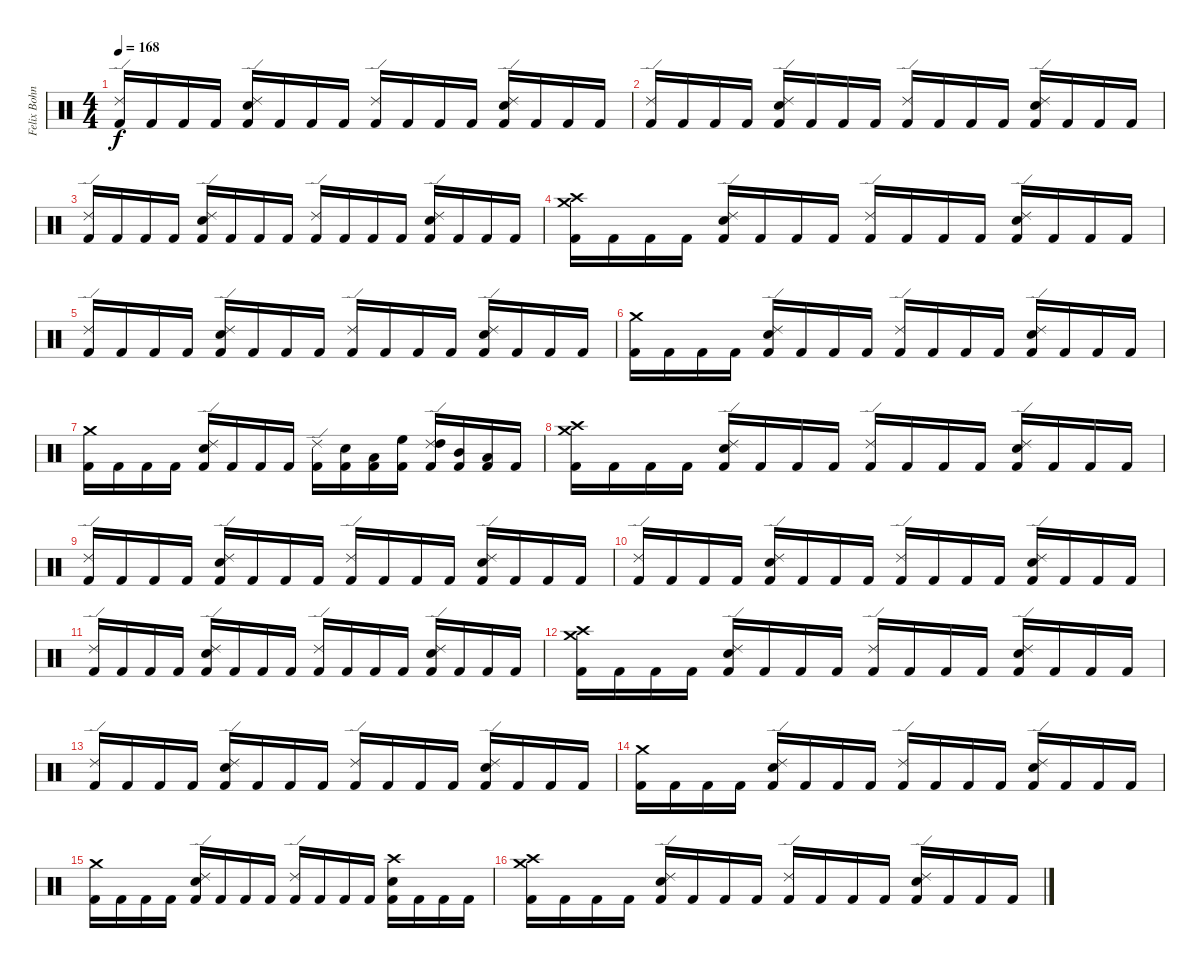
\track ("Felix Bohnke" "Felix Bohn") {instrument percussion}
\staff {score}
\articulation defaults
\ts (4 4)
\tempo 168
\clef neutral
\ks c
("Ride (edge) 2" "Kick (hit) 2").16{dy f} "Kick (hit) 2".16 "Kick (hit) 2".16 "Kick (hit) 2".16 ("Ride (edge) 2" "Snare (hit) 2" "Kick (hit) 2").16 "Kick (hit) 2".16 "Kick (hit) 2".16 "Kick (hit) 2".16 ("Ride (edge) 2" "Kick (hit) 2").16 "Kick (hit) 2".16 "Kick (hit) 2".16 "Kick (hit) 2".16 ("Ride (edge) 2" "Snare (hit) 2" "Kick (hit) 2").16 "Kick (hit) 2".16 "Kick (hit) 2".16 "Kick (hit) 2".16 |
("Ride (edge) 2" "Kick (hit) 2").16 "Kick (hit) 2".16 "Kick (hit) 2".16 "Kick (hit) 2".16 ("Ride (edge) 2" "Snare (hit) 2" "Kick (hit) 2").16 "Kick (hit) 2".16 "Kick (hit) 2".16 "Kick (hit) 2".16 ("Ride (edge) 2" "Kick (hit) 2").16 "Kick (hit) 2".16 "Kick (hit) 2".16 "Kick (hit) 2".16 ("Ride (edge) 2" "Snare (hit) 2" "Kick (hit) 2").16 "Kick (hit) 2".16 "Kick (hit) 2".16 "Kick (hit) 2".16 |
("Ride (edge) 2" "Kick (hit) 2").16 "Kick (hit) 2".16 "Kick (hit) 2".16 "Kick (hit) 2".16 ("Ride (edge) 2" "Snare (hit) 2" "Kick (hit) 2").16 "Kick (hit) 2".16 "Kick (hit) 2".16 "Kick (hit) 2".16 ("Ride (edge) 2" "Kick (hit) 2").16 "Kick (hit) 2".16 "Kick (hit) 2".16 "Kick (hit) 2".16 ("Ride (edge) 2" "Snare (hit) 2" "Kick (hit) 2").16 "Kick (hit) 2".16 "Kick (hit) 2".16 "Kick (hit) 2".16 |
("Crash high (hit)" "Crash medium (hit)" "Kick (hit) 2").16 "Kick (hit) 2".16 "Kick (hit) 2".16 "Kick (hit) 2".16 ("Ride (edge) 2" "Snare (hit) 2" "Kick (hit) 2").16 "Kick (hit) 2".16 "Kick (hit) 2".16 "Kick (hit) 2".16 ("Ride (edge) 2" "Kick (hit) 2").16 "Kick (hit) 2".16 "Kick (hit) 2".16 "Kick (hit) 2".16 ("Ride (edge) 2" "Snare (hit) 2" "Kick (hit) 2").16 "Kick (hit) 2".16 "Kick (hit) 2".16 "Kick (hit) 2".16 |
("Ride (edge) 2" "Kick (hit) 2").16 "Kick (hit) 2".16 "Kick (hit) 2".16 "Kick (hit) 2".16 ("Ride (edge) 2" "Snare (hit) 2" "Kick (hit) 2").16 "Kick (hit) 2".16 "Kick (hit) 2".16 "Kick (hit) 2".16 ("Ride (edge) 2" "Kick (hit) 2").16 "Kick (hit) 2".16 "Kick (hit) 2".16 "Kick (hit) 2".16 ("Ride (edge) 2" "Snare (hit) 2" "Kick (hit) 2").16 "Kick (hit) 2".16 "Kick (hit) 2".16 "Kick (hit) 2".16 |
("Crash medium (hit)" "Kick (hit) 2").16 "Kick (hit) 2".16 "Kick (hit) 2".16 "Kick (hit) 2".16 ("Ride (edge) 2" "Snare (hit) 2" "Kick (hit) 2").16 "Kick (hit) 2".16 "Kick (hit) 2".16 "Kick (hit) 2".16 ("Ride (edge) 2" "Kick (hit) 2").16 "Kick (hit) 2".16 "Kick (hit) 2".16 "Kick (hit) 2".16 ("Ride (edge) 2" "Snare (hit) 2" "Kick (hit) 2").16 "Kick (hit) 2".16 "Kick (hit) 2".16 "Kick (hit) 2".16 |
("Crash medium (hit)" "Kick (hit) 2").16 "Kick (hit) 2".16 "Kick (hit) 2".16 "Kick (hit) 2".16 ("Ride (edge) 2" "Snare (hit) 2" "Kick (hit) 2").16 "Kick (hit) 2".16 "Kick (hit) 2".16 "Kick (hit) 2".16 ("Ride (edge) 2" "Kick (hit) 2").16 ("Snare (hit) 2" "Kick (hit) 2").16 ("Low Tom (hit)" "Kick (hit) 2").16 ("High Floor Tom (hit)" "Kick (hit) 2").16 ("Ride (edge) 2" "High Tom (hit)" "Kick (hit) 2").16 ("Mid Tom (hit)" "Kick (hit) 2").16 ("Low Tom (hit)" "Kick (hit) 2").16 "Kick (hit) 2".16 |
("Crash high (hit)" "Crash medium (hit)" "Kick (hit) 2").16 "Kick (hit) 2".16 "Kick (hit) 2".16 "Kick (hit) 2".16 ("Ride (edge) 2" "Snare (hit) 2" "Kick (hit) 2").16 "Kick (hit) 2".16 "Kick (hit) 2".16 "Kick (hit) 2".16 ("Ride (edge) 2" "Kick (hit) 2").16 "Kick (hit) 2".16 "Kick (hit) 2".16 "Kick (hit) 2".16 ("Ride (edge) 2" "Snare (hit) 2" "Kick (hit) 2").16 "Kick (hit) 2".16 "Kick (hit) 2".16 "Kick (hit) 2".16 |
("Ride (edge) 2" "Kick (hit) 2").16 "Kick (hit) 2".16 "Kick (hit) 2".16 "Kick (hit) 2".16 ("Ride (edge) 2" "Snare (hit) 2" "Kick (hit) 2").16 "Kick (hit) 2".16 "Kick (hit) 2".16 "Kick (hit) 2".16 ("Ride (edge) 2" "Kick (hit) 2").16 "Kick (hit) 2".16 "Kick (hit) 2".16 "Kick (hit) 2".16 ("Ride (edge) 2" "Snare (hit) 2" "Kick (hit) 2").16 "Kick (hit) 2".16 "Kick (hit) 2".16 "Kick (hit) 2".16 |
("Ride (edge) 2" "Kick (hit) 2").16 "Kick (hit) 2".16 "Kick (hit) 2".16 "Kick (hit) 2".16 ("Ride (edge) 2" "Snare (hit) 2" "Kick (hit) 2").16 "Kick (hit) 2".16 "Kick (hit) 2".16 "Kick (hit) 2".16 ("Ride (edge) 2" "Kick (hit) 2").16 "Kick (hit) 2".16 "Kick (hit) 2".16 "Kick (hit) 2".16 ("Ride (edge) 2" "Snare (hit) 2" "Kick (hit) 2").16 "Kick (hit) 2".16 "Kick (hit) 2".16 "Kick (hit) 2".16 |
("Ride (edge) 2" "Kick (hit) 2").16 "Kick (hit) 2".16 "Kick (hit) 2".16 "Kick (hit) 2".16 ("Ride (edge) 2" "Snare (hit) 2" "Kick (hit) 2").16 "Kick (hit) 2".16 "Kick (hit) 2".16 "Kick (hit) 2".16 ("Ride (edge) 2" "Kick (hit) 2").16 "Kick (hit) 2".16 "Kick (hit) 2".16 "Kick (hit) 2".16 ("Ride (edge) 2" "Snare (hit) 2" "Kick (hit) 2").16 "Kick (hit) 2".16 "Kick (hit) 2".16 "Kick (hit) 2".16 |
("Crash high (hit)" "Crash medium (hit)" "Kick (hit) 2").16 "Kick (hit) 2".16 "Kick (hit) 2".16 "Kick (hit) 2".16 ("Ride (edge) 2" "Snare (hit) 2" "Kick (hit) 2").16 "Kick (hit) 2".16 "Kick (hit) 2".16 "Kick (hit) 2".16 ("Ride (edge) 2" "Kick (hit) 2").16 "Kick (hit) 2".16 "Kick (hit) 2".16 "Kick (hit) 2".16 ("Ride (edge) 2" "Snare (hit) 2" "Kick (hit) 2").16 "Kick (hit) 2".16 "Kick (hit) 2".16 "Kick (hit) 2".16 |
("Ride (edge) 2" "Kick (hit) 2").16 "Kick (hit) 2".16 "Kick (hit) 2".16 "Kick (hit) 2".16 ("Ride (edge) 2" "Snare (hit) 2" "Kick (hit) 2").16 "Kick (hit) 2".16 "Kick (hit) 2".16 "Kick (hit) 2".16 ("Ride (edge) 2" "Kick (hit) 2").16 "Kick (hit) 2".16 "Kick (hit) 2".16 "Kick (hit) 2".16 ("Ride (edge) 2" "Snare (hit) 2" "Kick (hit) 2").16 "Kick (hit) 2".16 "Kick (hit) 2".16 "Kick (hit) 2".16 |
("Crash medium (hit)" "Kick (hit) 2").16 "Kick (hit) 2".16 "Kick (hit) 2".16 "Kick (hit) 2".16 ("Ride (edge) 2" "Snare (hit) 2" "Kick (hit) 2").16 "Kick (hit) 2".16 "Kick (hit) 2".16 "Kick (hit) 2".16 ("Ride (edge) 2" "Kick (hit) 2").16 "Kick (hit) 2".16 "Kick (hit) 2".16 "Kick (hit) 2".16 ("Ride (edge) 2" "Snare (hit) 2" "Kick (hit) 2").16 "Kick (hit) 2".16 "Kick (hit) 2".16 "Kick (hit) 2".16 |
("Crash medium (hit)" "Kick (hit) 2").16 "Kick (hit) 2".16 "Kick (hit) 2".16 "Kick (hit) 2".16 ("Ride (edge) 2" "Snare (hit) 2" "Kick (hit) 2").16 "Kick (hit) 2".16 "Kick (hit) 2".16 "Kick (hit) 2".16 ("Ride (edge) 2" "Kick (hit) 2").16 "Kick (hit) 2".16 "Kick (hit) 2".16 "Kick (hit) 2".16 ("Crash high (hit)" "Snare (hit) 2" "Kick (hit) 2").16 "Kick (hit) 2".16 "Kick (hit) 2".16 "Kick (hit) 2".16 |
("Crash high (hit)" "Crash medium (hit)" "Kick (hit) 2").16 "Kick (hit) 2".16 "Kick (hit) 2".16 "Kick (hit) 2".16 ("Ride (edge) 2" "Snare (hit) 2" "Kick (hit) 2").16 "Kick (hit) 2".16 "Kick (hit) 2".16 "Kick (hit) 2".16 ("Ride (edge) 2" "Kick (hit) 2").16 "Kick (hit) 2".16 "Kick (hit) 2".16 "Kick (hit) 2".16 ("Ride (edge) 2" "Snare (hit) 2" "Kick (hit) 2").16 "Kick (hit) 2".16 "Kick (hit) 2".16 "Kick (hit) 2".16
